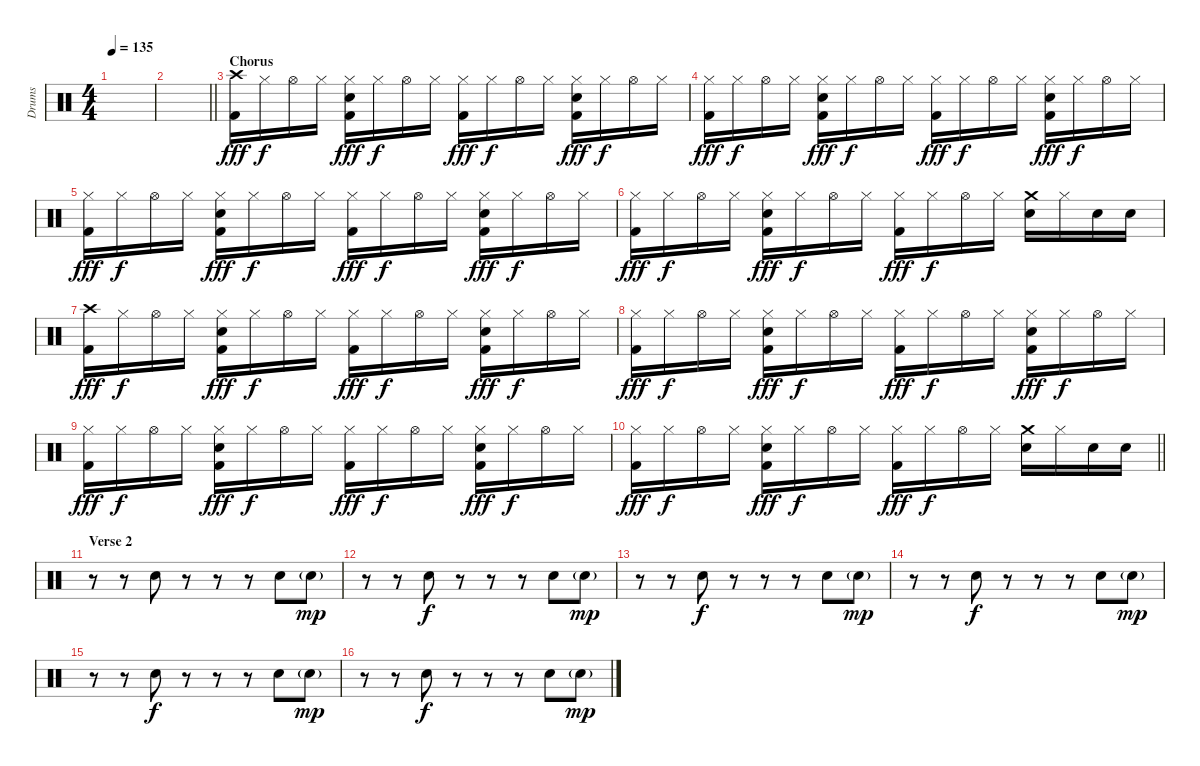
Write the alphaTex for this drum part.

\track ("Drums" "Drums") {instrument percussion}
\staff {score}
\articulation defaults
\ts (4 4)
\tempo 135
\clef neutral
\ks c
|
\barLineRight lightlight
|
\section ("" "Chorus")
("Kick (hit) 2" "Crash high (hit)").16{dy fff} "Hi-Hat (closed)".16{dy f} "Hi-Hat (open)".16 "Hi-Hat (closed)".16 ("Kick (hit) 2" "Snare (hit) 2" "Hi-Hat (closed)").16{dy fff} "Hi-Hat (closed)".16{dy f} "Hi-Hat (open)".16 "Hi-Hat (closed)".16 ("Kick (hit) 2" "Hi-Hat (closed)").16{dy fff} "Hi-Hat (closed)".16{dy f} "Hi-Hat (open)".16 "Hi-Hat (closed)".16 ("Kick (hit) 2" "Snare (hit) 2" "Hi-Hat (closed)").16{dy fff} "Hi-Hat (closed)".16{dy f} "Hi-Hat (open)".16 "Hi-Hat (closed)".16 |
("Kick (hit) 2" "Hi-Hat (closed)").16{dy fff} "Hi-Hat (closed)".16{dy f} "Hi-Hat (open)".16 "Hi-Hat (closed)".16 ("Kick (hit) 2" "Snare (hit) 2" "Hi-Hat (closed)").16{dy fff} "Hi-Hat (closed)".16{dy f} "Hi-Hat (open)".16 "Hi-Hat (closed)".16 ("Kick (hit) 2" "Hi-Hat (closed)").16{dy fff} "Hi-Hat (closed)".16{dy f} "Hi-Hat (open)".16 "Hi-Hat (closed)".16 ("Kick (hit) 2" "Snare (hit) 2" "Hi-Hat (closed)").16{dy fff} "Hi-Hat (closed)".16{dy f} "Hi-Hat (open)".16 "Hi-Hat (closed)".16 |
("Kick (hit) 2" "Hi-Hat (closed)").16{dy fff} "Hi-Hat (closed)".16{dy f} "Hi-Hat (open)".16 "Hi-Hat (closed)".16 ("Kick (hit) 2" "Snare (hit) 2" "Hi-Hat (closed)").16{dy fff} "Hi-Hat (closed)".16{dy f} "Hi-Hat (open)".16 "Hi-Hat (closed)".16 ("Kick (hit) 2" "Hi-Hat (closed)").16{dy fff} "Hi-Hat (closed)".16{dy f} "Hi-Hat (open)".16 "Hi-Hat (closed)".16 ("Kick (hit) 2" "Snare (hit) 2" "Hi-Hat (closed)").16{dy fff} "Hi-Hat (closed)".16{dy f} "Hi-Hat (open)".16 "Hi-Hat (closed)".16 |
("Kick (hit) 2" "Hi-Hat (closed)").16{dy fff} "Hi-Hat (closed)".16{dy f} "Hi-Hat (open)".16 "Hi-Hat (closed)".16 ("Kick (hit) 2" "Snare (hit) 2" "Hi-Hat (closed)").16{dy fff} "Hi-Hat (closed)".16{dy f} "Hi-Hat (open)".16 "Hi-Hat (closed)".16 ("Kick (hit) 2" "Hi-Hat (closed)").16{dy fff} "Hi-Hat (closed)".16{dy f} "Hi-Hat (open)".16 "Hi-Hat (closed)".16 ("Snare (hit) 2" "Crash medium (hit)").16 "Hi-Hat (closed)".16 "Snare (hit) 2".16 "Snare (hit) 2".16 |
("Kick (hit) 2" "Crash high (hit)").16{dy fff} "Hi-Hat (closed)".16{dy f} "Hi-Hat (open)".16 "Hi-Hat (closed)".16 ("Kick (hit) 2" "Snare (hit) 2" "Hi-Hat (closed)").16{dy fff} "Hi-Hat (closed)".16{dy f} "Hi-Hat (open)".16 "Hi-Hat (closed)".16 ("Kick (hit) 2" "Hi-Hat (closed)").16{dy fff} "Hi-Hat (closed)".16{dy f} "Hi-Hat (open)".16 "Hi-Hat (closed)".16 ("Kick (hit) 2" "Snare (hit) 2" "Hi-Hat (closed)").16{dy fff} "Hi-Hat (closed)".16{dy f} "Hi-Hat (open)".16 "Hi-Hat (closed)".16 |
("Kick (hit) 2" "Hi-Hat (closed)").16{dy fff} "Hi-Hat (closed)".16{dy f} "Hi-Hat (open)".16 "Hi-Hat (closed)".16 ("Kick (hit) 2" "Snare (hit) 2" "Hi-Hat (closed)").16{dy fff} "Hi-Hat (closed)".16{dy f} "Hi-Hat (open)".16 "Hi-Hat (closed)".16 ("Kick (hit) 2" "Hi-Hat (closed)").16{dy fff} "Hi-Hat (closed)".16{dy f} "Hi-Hat (open)".16 "Hi-Hat (closed)".16 ("Kick (hit) 2" "Snare (hit) 2" "Hi-Hat (closed)").16{dy fff} "Hi-Hat (closed)".16{dy f} "Hi-Hat (open)".16 "Hi-Hat (closed)".16 |
("Kick (hit) 2" "Hi-Hat (closed)").16{dy fff} "Hi-Hat (closed)".16{dy f} "Hi-Hat (open)".16 "Hi-Hat (closed)".16 ("Kick (hit) 2" "Snare (hit) 2" "Hi-Hat (closed)").16{dy fff} "Hi-Hat (closed)".16{dy f} "Hi-Hat (open)".16 "Hi-Hat (closed)".16 ("Kick (hit) 2" "Hi-Hat (closed)").16{dy fff} "Hi-Hat (closed)".16{dy f} "Hi-Hat (open)".16 "Hi-Hat (closed)".16 ("Kick (hit) 2" "Snare (hit) 2" "Hi-Hat (closed)").16{dy fff} "Hi-Hat (closed)".16{dy f} "Hi-Hat (open)".16 "Hi-Hat (closed)".16 |
\barLineRight lightlight
("Kick (hit) 2" "Hi-Hat (closed)").16{dy fff} "Hi-Hat (closed)".16{dy f} "Hi-Hat (open)".16 "Hi-Hat (closed)".16 ("Kick (hit) 2" "Snare (hit) 2" "Hi-Hat (closed)").16{dy fff} "Hi-Hat (closed)".16{dy f} "Hi-Hat (open)".16 "Hi-Hat (closed)".16 ("Kick (hit) 2" "Hi-Hat (closed)").16{dy fff} "Hi-Hat (closed)".16{dy f} "Hi-Hat (open)".16 "Hi-Hat (closed)".16 ("Snare (hit) 2" "Crash medium (hit)").16 "Hi-Hat (closed)".16 "Snare (hit) 2".16 "Snare (hit) 2".16 |
\section ("" "Verse 2")
r.8 r.8 "Hand Clap (hit)".8 r.8 r.8 r.8 "Hand Clap (hit)".8 "Hand Clap (hit)"{g}.8{dy mp} |
r.8 r.8 "Hand Clap (hit)".8{dy f} r.8 r.8 r.8 "Hand Clap (hit)".8 "Hand Clap (hit)"{g}.8{dy mp} |
r.8 r.8 "Hand Clap (hit)".8{dy f} r.8 r.8 r.8 "Hand Clap (hit)".8 "Hand Clap (hit)"{g}.8{dy mp} |
r.8 r.8 "Hand Clap (hit)".8{dy f} r.8 r.8 r.8 "Hand Clap (hit)".8 "Hand Clap (hit)"{g}.8{dy mp} |
r.8 r.8 "Hand Clap (hit)".8{dy f} r.8 r.8 r.8 "Hand Clap (hit)".8 "Hand Clap (hit)"{g}.8{dy mp} |
r.8 r.8 "Hand Clap (hit)".8{dy f} r.8 r.8 r.8 "Hand Clap (hit)".8 "Hand Clap (hit)"{g}.8{dy mp}
